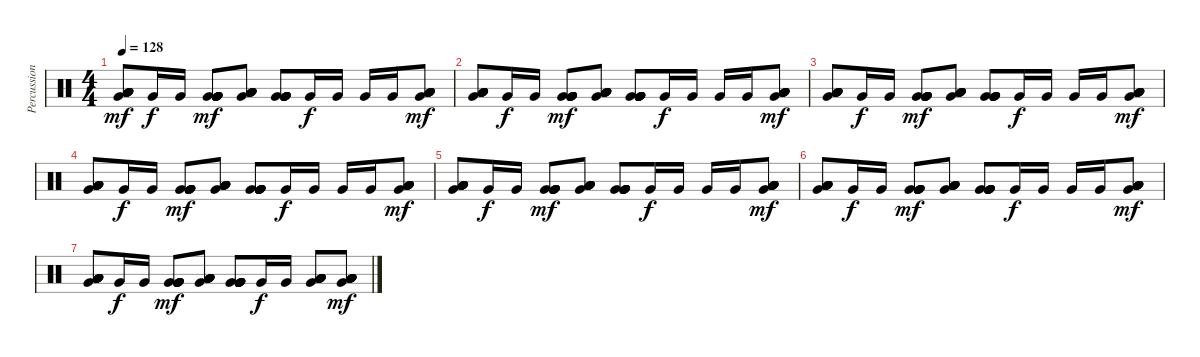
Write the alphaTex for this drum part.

\track ("Percussion" "Percussion") {instrument percussion}
\staff {score}
\articulation defaults
\ts (4 4)
\tempo 128
\clef neutral
\ks c
("Very Low Tom (hit)" "Low Tom (hit)" "Low Tom (hit)" "Low Tom (hit)" "Low Tom (hit)" "Low Tom (hit)").8{dy mf} "Very Low Tom (hit)".16{dy f} "Very Low Tom (hit)".16 ("Very Low Tom (hit)" "Very Low Tom (hit)" "Very Low Tom (hit)" "Very Low Tom (hit)" "Very Low Tom (hit)" "Very Low Tom (hit)").8{dy mf} ("Very Low Tom (hit)" "Low Tom (hit)" "Low Tom (hit)" "Low Tom (hit)" "Low Tom (hit)" "Low Tom (hit)").8 ("Very Low Tom (hit)" "Very Low Tom (hit)" "Very Low Tom (hit)" "Very Low Tom (hit)" "Very Low Tom (hit)" "Very Low Tom (hit)").8 "Very Low Tom (hit)".16{dy f} "Very Low Tom (hit)".16 "Very Low Tom (hit)".16 "Very Low Tom (hit)".16 ("Very Low Tom (hit)" "Low Tom (hit)" "Low Tom (hit)" "Low Tom (hit)" "Low Tom (hit)" "Low Tom (hit)").8{dy mf} |
("Very Low Tom (hit)" "Low Tom (hit)" "Low Tom (hit)" "Low Tom (hit)" "Low Tom (hit)" "Low Tom (hit)").8 "Very Low Tom (hit)".16{dy f} "Very Low Tom (hit)".16 ("Very Low Tom (hit)" "Very Low Tom (hit)" "Very Low Tom (hit)" "Very Low Tom (hit)" "Very Low Tom (hit)" "Very Low Tom (hit)").8{dy mf} ("Very Low Tom (hit)" "Low Tom (hit)" "Low Tom (hit)" "Low Tom (hit)" "Low Tom (hit)" "Low Tom (hit)").8 ("Very Low Tom (hit)" "Very Low Tom (hit)" "Very Low Tom (hit)" "Very Low Tom (hit)" "Very Low Tom (hit)" "Very Low Tom (hit)").8 "Very Low Tom (hit)".16{dy f} "Very Low Tom (hit)".16 "Very Low Tom (hit)".16 "Very Low Tom (hit)".16 ("Very Low Tom (hit)" "Low Tom (hit)" "Low Tom (hit)" "Low Tom (hit)" "Low Tom (hit)" "Low Tom (hit)").8{dy mf} |
("Very Low Tom (hit)" "Low Tom (hit)" "Low Tom (hit)" "Low Tom (hit)" "Low Tom (hit)" "Low Tom (hit)").8 "Very Low Tom (hit)".16{dy f} "Very Low Tom (hit)".16 ("Very Low Tom (hit)" "Very Low Tom (hit)" "Very Low Tom (hit)" "Very Low Tom (hit)" "Very Low Tom (hit)" "Very Low Tom (hit)").8{dy mf} ("Very Low Tom (hit)" "Low Tom (hit)" "Low Tom (hit)" "Low Tom (hit)" "Low Tom (hit)" "Low Tom (hit)").8 ("Very Low Tom (hit)" "Very Low Tom (hit)" "Very Low Tom (hit)" "Very Low Tom (hit)" "Very Low Tom (hit)" "Very Low Tom (hit)").8 "Very Low Tom (hit)".16{dy f} "Very Low Tom (hit)".16 "Very Low Tom (hit)".16 "Very Low Tom (hit)".16 ("Very Low Tom (hit)" "Low Tom (hit)" "Low Tom (hit)" "Low Tom (hit)" "Low Tom (hit)" "Low Tom (hit)").8{dy mf} |
("Very Low Tom (hit)" "Low Tom (hit)" "Low Tom (hit)" "Low Tom (hit)" "Low Tom (hit)" "Low Tom (hit)").8 "Very Low Tom (hit)".16{dy f} "Very Low Tom (hit)".16 ("Very Low Tom (hit)" "Very Low Tom (hit)" "Very Low Tom (hit)" "Very Low Tom (hit)" "Very Low Tom (hit)" "Very Low Tom (hit)").8{dy mf} ("Very Low Tom (hit)" "Low Tom (hit)" "Low Tom (hit)" "Low Tom (hit)" "Low Tom (hit)" "Low Tom (hit)").8 ("Very Low Tom (hit)" "Very Low Tom (hit)" "Very Low Tom (hit)" "Very Low Tom (hit)" "Very Low Tom (hit)" "Very Low Tom (hit)").8 "Very Low Tom (hit)".16{dy f} "Very Low Tom (hit)".16 "Very Low Tom (hit)".16 "Very Low Tom (hit)".16 ("Very Low Tom (hit)" "Low Tom (hit)" "Low Tom (hit)" "Low Tom (hit)" "Low Tom (hit)" "Low Tom (hit)").8{dy mf} |
("Very Low Tom (hit)" "Low Tom (hit)" "Low Tom (hit)" "Low Tom (hit)" "Low Tom (hit)" "Low Tom (hit)").8 "Very Low Tom (hit)".16{dy f} "Very Low Tom (hit)".16 ("Very Low Tom (hit)" "Very Low Tom (hit)" "Very Low Tom (hit)" "Very Low Tom (hit)" "Very Low Tom (hit)" "Very Low Tom (hit)").8{dy mf} ("Very Low Tom (hit)" "Low Tom (hit)" "Low Tom (hit)" "Low Tom (hit)" "Low Tom (hit)" "Low Tom (hit)").8 ("Very Low Tom (hit)" "Very Low Tom (hit)" "Very Low Tom (hit)" "Very Low Tom (hit)" "Very Low Tom (hit)" "Very Low Tom (hit)").8 "Very Low Tom (hit)".16{dy f} "Very Low Tom (hit)".16 "Very Low Tom (hit)".16 "Very Low Tom (hit)".16 ("Very Low Tom (hit)" "Low Tom (hit)" "Low Tom (hit)" "Low Tom (hit)" "Low Tom (hit)" "Low Tom (hit)").8{dy mf} |
("Very Low Tom (hit)" "Low Tom (hit)" "Low Tom (hit)" "Low Tom (hit)" "Low Tom (hit)" "Low Tom (hit)").8 "Very Low Tom (hit)".16{dy f} "Very Low Tom (hit)".16 ("Very Low Tom (hit)" "Very Low Tom (hit)" "Very Low Tom (hit)" "Very Low Tom (hit)" "Very Low Tom (hit)" "Very Low Tom (hit)").8{dy mf} ("Very Low Tom (hit)" "Low Tom (hit)" "Low Tom (hit)" "Low Tom (hit)" "Low Tom (hit)" "Low Tom (hit)").8 ("Very Low Tom (hit)" "Very Low Tom (hit)" "Very Low Tom (hit)" "Very Low Tom (hit)" "Very Low Tom (hit)" "Very Low Tom (hit)").8 "Very Low Tom (hit)".16{dy f} "Very Low Tom (hit)".16 "Very Low Tom (hit)".16 "Very Low Tom (hit)".16 ("Very Low Tom (hit)" "Low Tom (hit)" "Low Tom (hit)" "Low Tom (hit)" "Low Tom (hit)" "Low Tom (hit)").8{dy mf} |
("Very Low Tom (hit)" "Low Tom (hit)" "Low Tom (hit)" "Low Tom (hit)" "Low Tom (hit)" "Low Tom (hit)").8 "Very Low Tom (hit)".16{dy f} "Very Low Tom (hit)".16 ("Very Low Tom (hit)" "Very Low Tom (hit)" "Very Low Tom (hit)" "Very Low Tom (hit)" "Very Low Tom (hit)" "Very Low Tom (hit)").8{dy mf} ("Very Low Tom (hit)" "Low Tom (hit)" "Low Tom (hit)" "Low Tom (hit)" "Low Tom (hit)" "Low Tom (hit)").8 ("Very Low Tom (hit)" "Very Low Tom (hit)" "Very Low Tom (hit)" "Very Low Tom (hit)" "Very Low Tom (hit)" "Very Low Tom (hit)").8 "Very Low Tom (hit)".16{dy f} "Very Low Tom (hit)".16 ("Very Low Tom (hit)" "Low Tom (hit)" "Low Tom (hit)" "Low Tom (hit)" "Low Tom (hit)" "Low Tom (hit)").8 ("Very Low Tom (hit)" "Low Tom (hit)" "Low Tom (hit)" "Low Tom (hit)" "Low Tom (hit)" "Low Tom (hit)").8{dy mf}
